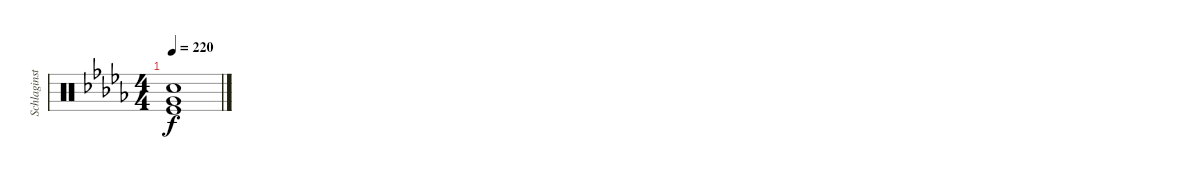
\track ("Schlaginstrumente - Auswahl" "Schlaginst") {instrument percussion}
\staff {score}
\articulation defaults
\ts (4 4)
\tempo 220
\clef neutral
\ks bbminor
("Snare (hit) 2" "Very Low Tom (hit)" "Kick (hit)").1{dy f}
